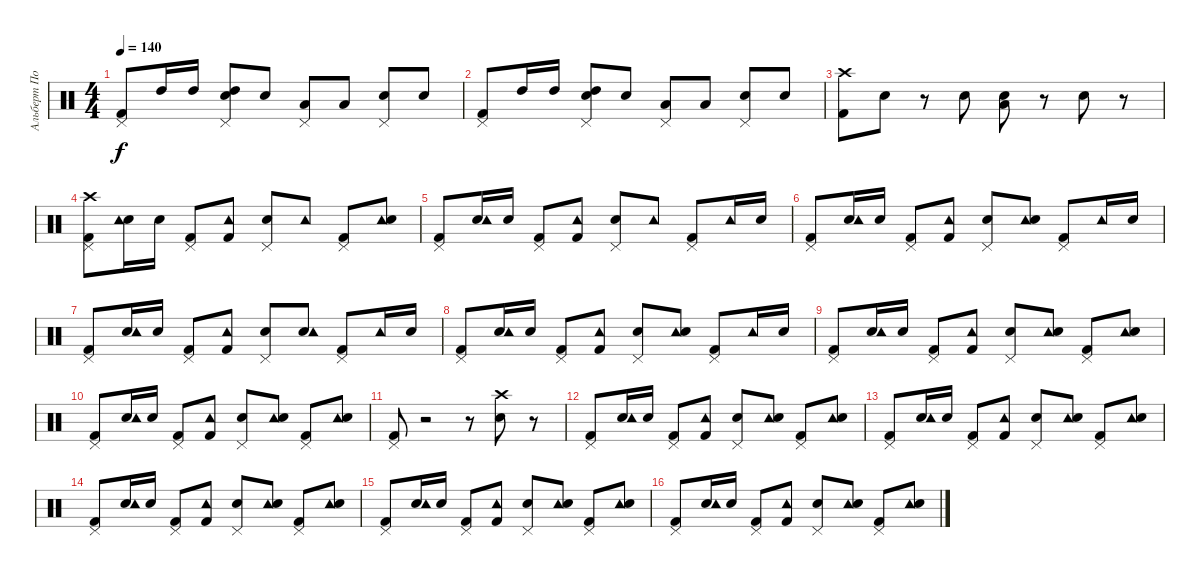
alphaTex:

\track ("Альберт Потапкин" "Альберт По") {instrument percussion}
\staff {score}
\articulation defaults
\ts (4 4)
\tempo 140
\clef neutral
\ks c
("Pedal Hi-Hat (hit)" "Kick (hit) 2").8{dy f} "High Tom (hit)".16 "High Tom (hit)".16 ("Pedal Hi-Hat (hit)" "Electric Snare (hit)" "High Tom (hit)").8 "Electric Snare (hit)".8 ("Pedal Hi-Hat (hit)" "Low Floor Tom (hit)").8 "Low Floor Tom (hit)".8 ("Pedal Hi-Hat (hit)" "Snare (hit) 2").8 "Snare (hit) 2".8 |
("Pedal Hi-Hat (hit)" "Kick (hit) 2").8 "High Tom (hit)".16 "High Tom (hit)".16 ("Pedal Hi-Hat (hit)" "Electric Snare (hit)" "High Tom (hit)").8 "Electric Snare (hit)".8 ("Pedal Hi-Hat (hit)" "Low Floor Tom (hit)").8 "Low Floor Tom (hit)".8 ("Pedal Hi-Hat (hit)" "Snare (hit) 2").8 "Snare (hit) 2".8 |
("Crash high (hit)" "Kick (hit) 2").8 "Snare (hit) 2".8 r.8 "Snare (hit) 2".8 ("Snare (hit) 2" "Low Floor Tom (hit)").8 r.8 "Electric Snare (hit)".8 r.8 |
("Crash high (hit)" "Pedal Hi-Hat (hit)" "Kick (hit) 2").8 ("Electric Snare (hit)" "Tambourine (hit)").16 "Electric Snare (hit)".16 ("Pedal Hi-Hat (hit)" "Kick (hit) 2").8 ("Kick (hit) 2" "Tambourine (hit)").8 ("Pedal Hi-Hat (hit)" "Electric Snare (hit)").8 "Tambourine (hit)".8 ("Pedal Hi-Hat (hit)" "Kick (hit) 2").8 ("Tambourine (hit)" "Electric Snare (hit)").8 |
("Pedal Hi-Hat (hit)" "Kick (hit) 2").8 ("Electric Snare (hit)" "Tambourine (hit)").16 "Electric Snare (hit)".16 ("Pedal Hi-Hat (hit)" "Kick (hit) 2").8 ("Kick (hit) 2" "Tambourine (hit)").8 ("Pedal Hi-Hat (hit)" "Electric Snare (hit)").8 "Tambourine (hit)".8 ("Pedal Hi-Hat (hit)" "Kick (hit) 2").8 "Tambourine (hit)".16 "Electric Snare (hit)".16 |
("Pedal Hi-Hat (hit)" "Kick (hit) 2").8 ("Electric Snare (hit)" "Tambourine (hit)").16 "Electric Snare (hit)".16 ("Pedal Hi-Hat (hit)" "Kick (hit) 2").8 ("Kick (hit) 2" "Tambourine (hit)").8 ("Pedal Hi-Hat (hit)" "Electric Snare (hit)").8 ("Tambourine (hit)" "Electric Snare (hit)").8 ("Pedal Hi-Hat (hit)" "Kick (hit) 2").8 "Tambourine (hit)".16 "Electric Snare (hit)".16 |
("Pedal Hi-Hat (hit)" "Kick (hit) 2").8 ("Electric Snare (hit)" "Tambourine (hit)").16 "Electric Snare (hit)".16 ("Pedal Hi-Hat (hit)" "Kick (hit) 2").8 ("Kick (hit) 2" "Tambourine (hit)").8 ("Pedal Hi-Hat (hit)" "Electric Snare (hit)").8 ("Electric Snare (hit)" "Tambourine (hit)").8 ("Pedal Hi-Hat (hit)" "Kick (hit) 2").8 "Tambourine (hit)".16 "Electric Snare (hit)".16 |
("Pedal Hi-Hat (hit)" "Kick (hit) 2").8 ("Electric Snare (hit)" "Tambourine (hit)").16 "Electric Snare (hit)".16 ("Pedal Hi-Hat (hit)" "Kick (hit) 2").8 ("Kick (hit) 2" "Tambourine (hit)").8 ("Pedal Hi-Hat (hit)" "Electric Snare (hit)").8 ("Tambourine (hit)" "Electric Snare (hit)").8 ("Pedal Hi-Hat (hit)" "Kick (hit) 2").8 "Tambourine (hit)".16 "Electric Snare (hit)".16 |
("Pedal Hi-Hat (hit)" "Kick (hit) 2").8 ("Electric Snare (hit)" "Tambourine (hit)").16 "Electric Snare (hit)".16 ("Pedal Hi-Hat (hit)" "Kick (hit) 2").8 ("Kick (hit) 2" "Tambourine (hit)").8 ("Pedal Hi-Hat (hit)" "Electric Snare (hit)").8 ("Tambourine (hit)" "Electric Snare (hit)").8 ("Pedal Hi-Hat (hit)" "Kick (hit) 2").8 ("Tambourine (hit)" "Electric Snare (hit)").8 |
("Pedal Hi-Hat (hit)" "Kick (hit) 2").8 ("Electric Snare (hit)" "Tambourine (hit)").16 "Electric Snare (hit)".16 ("Pedal Hi-Hat (hit)" "Kick (hit) 2").8 ("Kick (hit) 2" "Tambourine (hit)").8 ("Pedal Hi-Hat (hit)" "Electric Snare (hit)").8 ("Tambourine (hit)" "Electric Snare (hit)").8 ("Pedal Hi-Hat (hit)" "Kick (hit) 2").8 ("Tambourine (hit)" "Electric Snare (hit)").8 |
("Pedal Hi-Hat (hit)" "Kick (hit) 2").8 r.2 r.8 ("Crash high (hit)" "Electric Snare (hit)").8 r.8 |
("Pedal Hi-Hat (hit)" "Kick (hit) 2").8 ("Electric Snare (hit)" "Tambourine (hit)").16 "Electric Snare (hit)".16 ("Pedal Hi-Hat (hit)" "Kick (hit) 2").8 ("Kick (hit) 2" "Tambourine (hit)").8 ("Pedal Hi-Hat (hit)" "Electric Snare (hit)").8 ("Tambourine (hit)" "Electric Snare (hit)").8 ("Pedal Hi-Hat (hit)" "Kick (hit) 2").8 ("Tambourine (hit)" "Electric Snare (hit)").8 |
("Pedal Hi-Hat (hit)" "Kick (hit) 2").8 ("Electric Snare (hit)" "Tambourine (hit)").16 "Electric Snare (hit)".16 ("Pedal Hi-Hat (hit)" "Kick (hit) 2").8 ("Kick (hit) 2" "Tambourine (hit)").8 ("Pedal Hi-Hat (hit)" "Electric Snare (hit)").8 ("Tambourine (hit)" "Electric Snare (hit)").8 ("Pedal Hi-Hat (hit)" "Kick (hit) 2").8 ("Tambourine (hit)" "Electric Snare (hit)").8 |
("Pedal Hi-Hat (hit)" "Kick (hit) 2").8 ("Electric Snare (hit)" "Tambourine (hit)").16 "Electric Snare (hit)".16 ("Pedal Hi-Hat (hit)" "Kick (hit) 2").8 ("Kick (hit) 2" "Tambourine (hit)").8 ("Pedal Hi-Hat (hit)" "Electric Snare (hit)").8 ("Tambourine (hit)" "Electric Snare (hit)").8 ("Pedal Hi-Hat (hit)" "Kick (hit) 2").8 ("Tambourine (hit)" "Electric Snare (hit)").8 |
("Pedal Hi-Hat (hit)" "Kick (hit) 2").8 ("Electric Snare (hit)" "Tambourine (hit)").16 "Electric Snare (hit)".16 ("Pedal Hi-Hat (hit)" "Kick (hit) 2").8 ("Kick (hit) 2" "Tambourine (hit)").8 ("Pedal Hi-Hat (hit)" "Electric Snare (hit)").8 ("Tambourine (hit)" "Electric Snare (hit)").8 ("Pedal Hi-Hat (hit)" "Kick (hit) 2").8 ("Tambourine (hit)" "Electric Snare (hit)").8 |
("Pedal Hi-Hat (hit)" "Kick (hit) 2").8 ("Electric Snare (hit)" "Tambourine (hit)").16 "Electric Snare (hit)".16 ("Pedal Hi-Hat (hit)" "Kick (hit) 2").8 ("Kick (hit) 2" "Tambourine (hit)").8 ("Pedal Hi-Hat (hit)" "Electric Snare (hit)").8 ("Tambourine (hit)" "Electric Snare (hit)").8 ("Pedal Hi-Hat (hit)" "Kick (hit) 2").8 ("Tambourine (hit)" "Electric Snare (hit)").8
